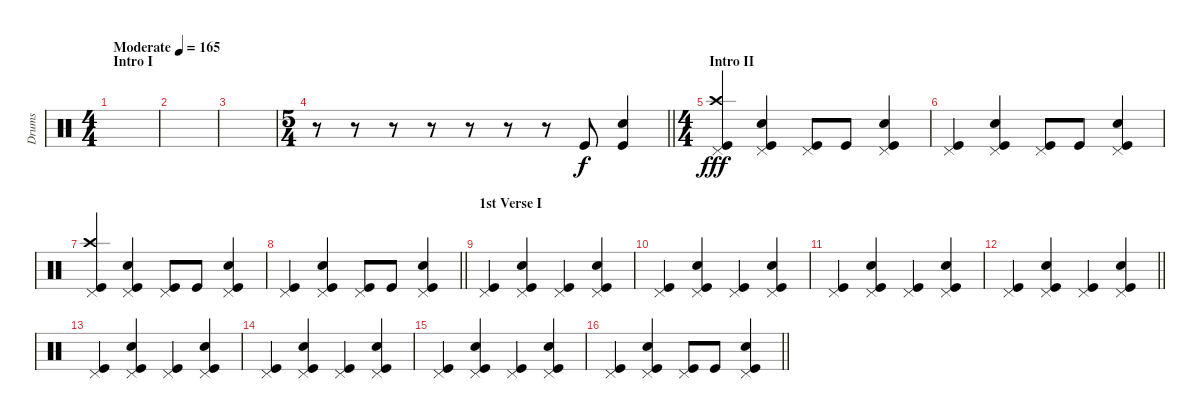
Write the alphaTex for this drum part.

\track ("Drums" "Drums") {instrument percussion}
\staff {score}
\articulation defaults
\ts (4 4)
\section ("" "Intro I")
\tempo (165 "Moderate")
\clef neutral
\ks c
|
|
|
\ts (5 4)
\barLineRight lightlight
r.8 r.8 r.8 r.8 r.8 r.8 r.8 "Kick (hit)".8 ("Electric Snare (hit)" "Kick (hit)").4 |
\ts (4 4)
\section ("" "Intro II")
("Crash high (hit)" "Pedal Hi-Hat (hit)" "Kick (hit)").4{dy fff} ("Snare (hit) 2" "Pedal Hi-Hat (hit)" "Kick (hit)").4 ("Pedal Hi-Hat (hit)" "Kick (hit)").8 "Kick (hit)".8 ("Snare (hit) 2" "Pedal Hi-Hat (hit)" "Kick (hit)").4 |
("Pedal Hi-Hat (hit)" "Kick (hit)").4 ("Snare (hit) 2" "Pedal Hi-Hat (hit)" "Kick (hit)").4 ("Pedal Hi-Hat (hit)" "Kick (hit)").8 "Kick (hit)".8 ("Snare (hit) 2" "Pedal Hi-Hat (hit)" "Kick (hit)").4 |
("Crash high (hit)" "Pedal Hi-Hat (hit)" "Kick (hit)").4 ("Snare (hit) 2" "Pedal Hi-Hat (hit)" "Kick (hit)").4 ("Pedal Hi-Hat (hit)" "Kick (hit)").8 "Kick (hit)".8 ("Snare (hit) 2" "Pedal Hi-Hat (hit)" "Kick (hit)").4 |
\barLineRight lightlight
("Pedal Hi-Hat (hit)" "Kick (hit)").4 ("Snare (hit) 2" "Pedal Hi-Hat (hit)" "Kick (hit)").4 ("Pedal Hi-Hat (hit)" "Kick (hit)").8 "Kick (hit)".8 ("Snare (hit) 2" "Pedal Hi-Hat (hit)" "Kick (hit)").4 |
\section ("" "1st Verse I")
("Pedal Hi-Hat (hit)" "Kick (hit)").4 ("Snare (hit) 2" "Pedal Hi-Hat (hit)" "Kick (hit)").4 ("Pedal Hi-Hat (hit)" "Kick (hit)").4 ("Snare (hit) 2" "Pedal Hi-Hat (hit)" "Kick (hit)").4 |
("Pedal Hi-Hat (hit)" "Kick (hit)").4 ("Snare (hit) 2" "Pedal Hi-Hat (hit)" "Kick (hit)").4 ("Pedal Hi-Hat (hit)" "Kick (hit)").4 ("Snare (hit) 2" "Pedal Hi-Hat (hit)" "Kick (hit)").4 |
("Pedal Hi-Hat (hit)" "Kick (hit)").4 ("Snare (hit) 2" "Pedal Hi-Hat (hit)" "Kick (hit)").4 ("Pedal Hi-Hat (hit)" "Kick (hit)").4 ("Snare (hit) 2" "Pedal Hi-Hat (hit)" "Kick (hit)").4 |
\barLineRight lightlight
("Pedal Hi-Hat (hit)" "Kick (hit)").4 ("Snare (hit) 2" "Pedal Hi-Hat (hit)" "Kick (hit)").4 ("Pedal Hi-Hat (hit)" "Kick (hit)").4 ("Snare (hit) 2" "Pedal Hi-Hat (hit)" "Kick (hit)").4 |
("Pedal Hi-Hat (hit)" "Kick (hit)").4 ("Snare (hit) 2" "Pedal Hi-Hat (hit)" "Kick (hit)").4 ("Pedal Hi-Hat (hit)" "Kick (hit)").4 ("Snare (hit) 2" "Pedal Hi-Hat (hit)" "Kick (hit)").4 |
("Pedal Hi-Hat (hit)" "Kick (hit)").4 ("Snare (hit) 2" "Pedal Hi-Hat (hit)" "Kick (hit)").4 ("Pedal Hi-Hat (hit)" "Kick (hit)").4 ("Snare (hit) 2" "Pedal Hi-Hat (hit)" "Kick (hit)").4 |
("Pedal Hi-Hat (hit)" "Kick (hit)").4 ("Snare (hit) 2" "Pedal Hi-Hat (hit)" "Kick (hit)").4 ("Pedal Hi-Hat (hit)" "Kick (hit)").4 ("Snare (hit) 2" "Pedal Hi-Hat (hit)" "Kick (hit)").4 |
\barLineRight lightlight
("Pedal Hi-Hat (hit)" "Kick (hit)").4 ("Snare (hit) 2" "Pedal Hi-Hat (hit)" "Kick (hit)").4 ("Pedal Hi-Hat (hit)" "Kick (hit)").8 "Kick (hit)".8 ("Snare (hit) 2" "Pedal Hi-Hat (hit)" "Kick (hit)").4
